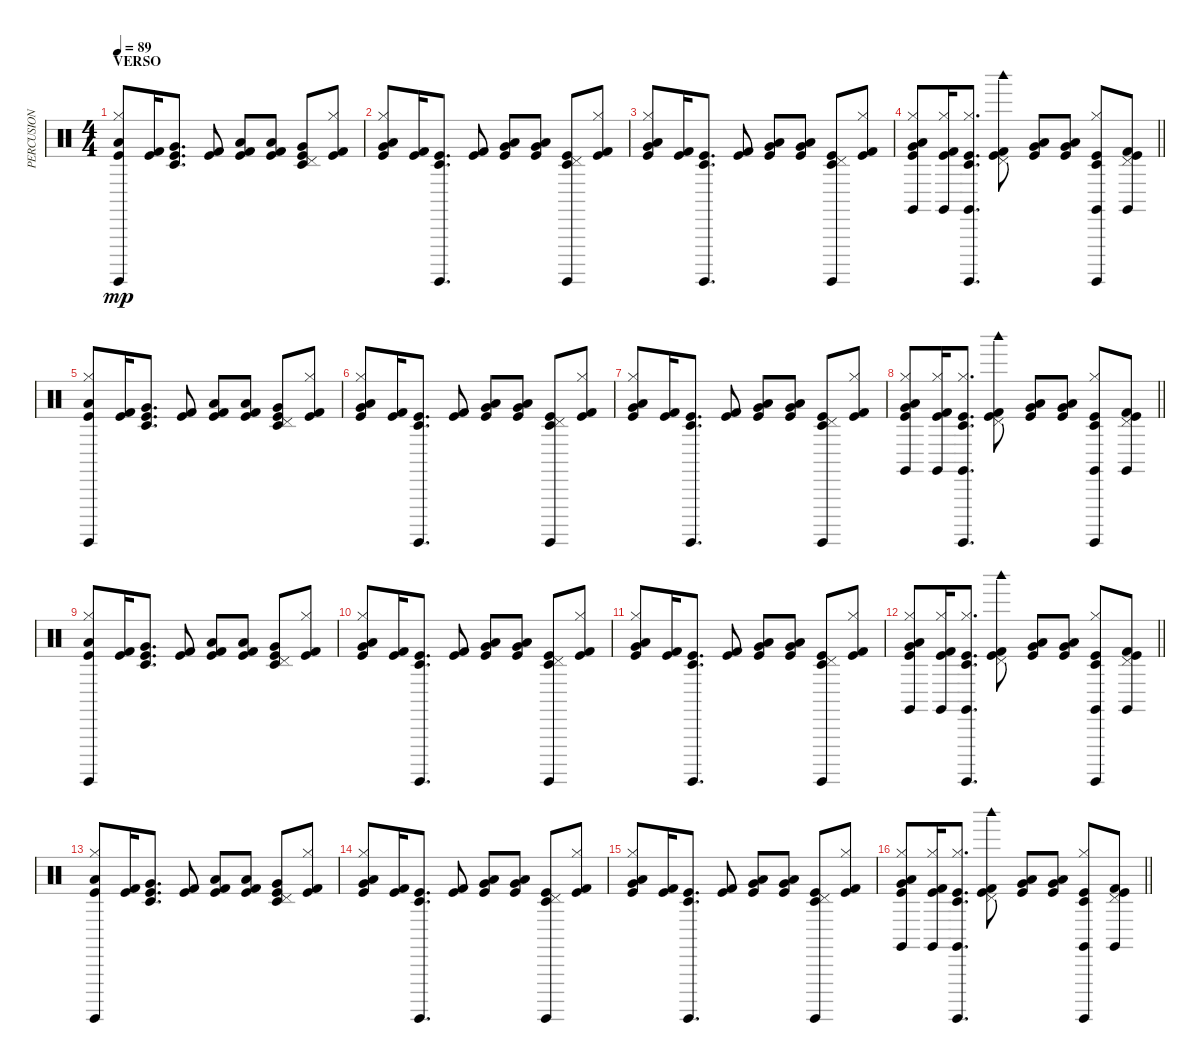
\track ("PERCUSION" "PERCUSION") {instrument percussion}
\staff {score}
\articulation defaults
\ts (4 4)
\section ("" "VERSO")
\tempo 89
\clef neutral
\ks c
("Kick (hit)" "Hi-Hat (closed)" "Surdo (hit)" "Low Floor Tom (hit)").8{dy mp} ("Kick (hit)" "Kick (hit) 2").16 ("Kick (hit)" "Very Low Tom (hit)" "Timbale low (hit)").8{d} ("Kick (hit)" "Kick (hit) 2").8 ("Kick (hit)" "Kick (hit) 2" "Low Floor Tom (hit)").8 ("Kick (hit)" "Kick (hit) 2" "Low Floor Tom (hit)").8 ("Kick (hit)" "Pedal Hi-Hat (hit)" "Very Low Tom (hit)" "Timbale low (hit)").8 ("Kick (hit)" "Hi-Hat (closed)" "Kick (hit) 2").8 |
("Kick (hit)" "Hi-Hat (closed)" "Very Low Tom (hit)" "Low Floor Tom (hit)").8 ("Kick (hit)" "Kick (hit) 2").16 ("Kick (hit)" "Surdo (hit)" "Timbale low (hit)").8{d} ("Kick (hit)" "Kick (hit) 2").8 ("Kick (hit)" "Very Low Tom (hit)" "Low Floor Tom (hit)").8 ("Kick (hit)" "Very Low Tom (hit)" "Low Floor Tom (hit)").8 ("Kick (hit)" "Pedal Hi-Hat (hit)" "Surdo (hit)" "Timbale low (hit)").8 ("Kick (hit)" "Hi-Hat (closed)" "Kick (hit) 2").8 |
("Kick (hit)" "Hi-Hat (closed)" "Very Low Tom (hit)" "Low Floor Tom (hit)").8 ("Kick (hit)" "Kick (hit) 2").16 ("Kick (hit)" "Surdo (hit)" "Timbale low (hit)").8{d} ("Kick (hit)" "Kick (hit) 2").8 ("Kick (hit)" "Very Low Tom (hit)" "Low Floor Tom (hit)").8 ("Kick (hit)" "Very Low Tom (hit)" "Low Floor Tom (hit)").8 ("Kick (hit)" "Pedal Hi-Hat (hit)" "Surdo (hit)" "Timbale low (hit)").8 ("Kick (hit)" "Hi-Hat (closed)" "Kick (hit) 2").8 |
\barLineRight lightlight
("Kick (hit)" "Claves (hit)" "Hi-Hat (closed)" "Very Low Tom (hit)" "Low Floor Tom (hit)").8 ("Kick (hit)" "Claves (hit)" "Hi-Hat (closed)" "Kick (hit) 2").16 ("Kick (hit)" "Claves (hit)" "Hi-Hat (closed)" "Surdo (hit)" "Timbale low (hit)").8{d} ("Kick (hit)" "Woodblock high (hit)" "Pedal Hi-Hat (hit)" "Kick (hit) 2").8 ("Kick (hit)" "Very Low Tom (hit)" "Low Floor Tom (hit)").8 ("Kick (hit)" "Very Low Tom (hit)" "Low Floor Tom (hit)").8 ("Kick (hit)" "Claves (hit)" "Hi-Hat (closed)" "Surdo (hit)" "Timbale low (hit)").8 ("Kick (hit)" "Claves (hit)" "Pedal Hi-Hat (hit)" "Kick (hit) 2").8 |
("Kick (hit)" "Hi-Hat (closed)" "Surdo (hit)" "Low Floor Tom (hit)").8 ("Kick (hit)" "Kick (hit) 2").16 ("Kick (hit)" "Very Low Tom (hit)" "Timbale low (hit)").8{d} ("Kick (hit)" "Kick (hit) 2").8 ("Kick (hit)" "Kick (hit) 2" "Low Floor Tom (hit)").8 ("Kick (hit)" "Kick (hit) 2" "Low Floor Tom (hit)").8 ("Kick (hit)" "Pedal Hi-Hat (hit)" "Very Low Tom (hit)" "Timbale low (hit)").8 ("Kick (hit)" "Hi-Hat (closed)" "Kick (hit) 2").8 |
("Kick (hit)" "Hi-Hat (closed)" "Very Low Tom (hit)" "Low Floor Tom (hit)").8 ("Kick (hit)" "Kick (hit) 2").16 ("Kick (hit)" "Surdo (hit)" "Timbale low (hit)").8{d} ("Kick (hit)" "Kick (hit) 2").8 ("Kick (hit)" "Very Low Tom (hit)" "Low Floor Tom (hit)").8 ("Kick (hit)" "Very Low Tom (hit)" "Low Floor Tom (hit)").8 ("Kick (hit)" "Pedal Hi-Hat (hit)" "Surdo (hit)" "Timbale low (hit)").8 ("Kick (hit)" "Hi-Hat (closed)" "Kick (hit) 2").8 |
("Kick (hit)" "Hi-Hat (closed)" "Very Low Tom (hit)" "Low Floor Tom (hit)").8 ("Kick (hit)" "Kick (hit) 2").16 ("Kick (hit)" "Surdo (hit)" "Timbale low (hit)").8{d} ("Kick (hit)" "Kick (hit) 2").8 ("Kick (hit)" "Very Low Tom (hit)" "Low Floor Tom (hit)").8 ("Kick (hit)" "Very Low Tom (hit)" "Low Floor Tom (hit)").8 ("Kick (hit)" "Pedal Hi-Hat (hit)" "Surdo (hit)" "Timbale low (hit)").8 ("Kick (hit)" "Hi-Hat (closed)" "Kick (hit) 2").8 |
\barLineRight lightlight
("Kick (hit)" "Claves (hit)" "Hi-Hat (closed)" "Very Low Tom (hit)" "Low Floor Tom (hit)").8 ("Kick (hit)" "Claves (hit)" "Hi-Hat (closed)" "Kick (hit) 2").16 ("Kick (hit)" "Claves (hit)" "Hi-Hat (closed)" "Surdo (hit)" "Timbale low (hit)").8{d} ("Kick (hit)" "Woodblock high (hit)" "Pedal Hi-Hat (hit)" "Kick (hit) 2").8 ("Kick (hit)" "Very Low Tom (hit)" "Low Floor Tom (hit)").8 ("Kick (hit)" "Very Low Tom (hit)" "Low Floor Tom (hit)").8 ("Kick (hit)" "Claves (hit)" "Hi-Hat (closed)" "Surdo (hit)" "Timbale low (hit)").8 ("Kick (hit)" "Claves (hit)" "Pedal Hi-Hat (hit)" "Kick (hit) 2").8 |
\section ("" "")
("Kick (hit)" "Hi-Hat (closed)" "Surdo (hit)" "Low Floor Tom (hit)").8 ("Kick (hit)" "Kick (hit) 2").16 ("Kick (hit)" "Very Low Tom (hit)" "Timbale low (hit)").8{d} ("Kick (hit)" "Kick (hit) 2").8 ("Kick (hit)" "Kick (hit) 2" "Low Floor Tom (hit)").8 ("Kick (hit)" "Kick (hit) 2" "Low Floor Tom (hit)").8 ("Kick (hit)" "Pedal Hi-Hat (hit)" "Very Low Tom (hit)" "Timbale low (hit)").8 ("Kick (hit)" "Hi-Hat (closed)" "Kick (hit) 2").8 |
("Kick (hit)" "Hi-Hat (closed)" "Very Low Tom (hit)" "Low Floor Tom (hit)").8 ("Kick (hit)" "Kick (hit) 2").16 ("Kick (hit)" "Surdo (hit)" "Timbale low (hit)").8{d} ("Kick (hit)" "Kick (hit) 2").8 ("Kick (hit)" "Very Low Tom (hit)" "Low Floor Tom (hit)").8 ("Kick (hit)" "Very Low Tom (hit)" "Low Floor Tom (hit)").8 ("Kick (hit)" "Pedal Hi-Hat (hit)" "Surdo (hit)" "Timbale low (hit)").8 ("Kick (hit)" "Hi-Hat (closed)" "Kick (hit) 2").8 |
("Kick (hit)" "Hi-Hat (closed)" "Very Low Tom (hit)" "Low Floor Tom (hit)").8 ("Kick (hit)" "Kick (hit) 2").16 ("Kick (hit)" "Surdo (hit)" "Timbale low (hit)").8{d} ("Kick (hit)" "Kick (hit) 2").8 ("Kick (hit)" "Very Low Tom (hit)" "Low Floor Tom (hit)").8 ("Kick (hit)" "Very Low Tom (hit)" "Low Floor Tom (hit)").8 ("Kick (hit)" "Pedal Hi-Hat (hit)" "Surdo (hit)" "Timbale low (hit)").8 ("Kick (hit)" "Hi-Hat (closed)" "Kick (hit) 2").8 |
\barLineRight lightlight
("Kick (hit)" "Claves (hit)" "Hi-Hat (closed)" "Very Low Tom (hit)" "Low Floor Tom (hit)").8 ("Kick (hit)" "Claves (hit)" "Hi-Hat (closed)" "Kick (hit) 2").16 ("Kick (hit)" "Claves (hit)" "Hi-Hat (closed)" "Surdo (hit)" "Timbale low (hit)").8{d} ("Kick (hit)" "Woodblock high (hit)" "Pedal Hi-Hat (hit)" "Kick (hit) 2").8 ("Kick (hit)" "Very Low Tom (hit)" "Low Floor Tom (hit)").8 ("Kick (hit)" "Very Low Tom (hit)" "Low Floor Tom (hit)").8 ("Kick (hit)" "Claves (hit)" "Hi-Hat (closed)" "Surdo (hit)" "Timbale low (hit)").8 ("Kick (hit)" "Claves (hit)" "Pedal Hi-Hat (hit)" "Kick (hit) 2").8 |
("Kick (hit)" "Hi-Hat (closed)" "Surdo (hit)" "Low Floor Tom (hit)").8 ("Kick (hit)" "Kick (hit) 2").16 ("Kick (hit)" "Very Low Tom (hit)" "Timbale low (hit)").8{d} ("Kick (hit)" "Kick (hit) 2").8 ("Kick (hit)" "Kick (hit) 2" "Low Floor Tom (hit)").8 ("Kick (hit)" "Kick (hit) 2" "Low Floor Tom (hit)").8 ("Kick (hit)" "Pedal Hi-Hat (hit)" "Very Low Tom (hit)" "Timbale low (hit)").8 ("Kick (hit)" "Hi-Hat (closed)" "Kick (hit) 2").8 |
("Kick (hit)" "Hi-Hat (closed)" "Very Low Tom (hit)" "Low Floor Tom (hit)").8 ("Kick (hit)" "Kick (hit) 2").16 ("Kick (hit)" "Surdo (hit)" "Timbale low (hit)").8{d} ("Kick (hit)" "Kick (hit) 2").8 ("Kick (hit)" "Very Low Tom (hit)" "Low Floor Tom (hit)").8 ("Kick (hit)" "Very Low Tom (hit)" "Low Floor Tom (hit)").8 ("Kick (hit)" "Pedal Hi-Hat (hit)" "Surdo (hit)" "Timbale low (hit)").8 ("Kick (hit)" "Hi-Hat (closed)" "Kick (hit) 2").8 |
("Kick (hit)" "Hi-Hat (closed)" "Very Low Tom (hit)" "Low Floor Tom (hit)").8 ("Kick (hit)" "Kick (hit) 2").16 ("Kick (hit)" "Surdo (hit)" "Timbale low (hit)").8{d} ("Kick (hit)" "Kick (hit) 2").8 ("Kick (hit)" "Very Low Tom (hit)" "Low Floor Tom (hit)").8 ("Kick (hit)" "Very Low Tom (hit)" "Low Floor Tom (hit)").8 ("Kick (hit)" "Pedal Hi-Hat (hit)" "Surdo (hit)" "Timbale low (hit)").8 ("Kick (hit)" "Hi-Hat (closed)" "Kick (hit) 2").8 |
\barLineRight lightlight
("Kick (hit)" "Claves (hit)" "Hi-Hat (closed)" "Very Low Tom (hit)" "Low Floor Tom (hit)").8 ("Kick (hit)" "Claves (hit)" "Hi-Hat (closed)" "Kick (hit) 2").16 ("Kick (hit)" "Claves (hit)" "Hi-Hat (closed)" "Surdo (hit)" "Timbale low (hit)").8{d} ("Kick (hit)" "Woodblock high (hit)" "Pedal Hi-Hat (hit)" "Kick (hit) 2").8 ("Kick (hit)" "Very Low Tom (hit)" "Low Floor Tom (hit)").8 ("Kick (hit)" "Very Low Tom (hit)" "Low Floor Tom (hit)").8 ("Kick (hit)" "Claves (hit)" "Hi-Hat (closed)" "Surdo (hit)" "Timbale low (hit)").8 ("Kick (hit)" "Claves (hit)" "Pedal Hi-Hat (hit)" "Kick (hit) 2").8
